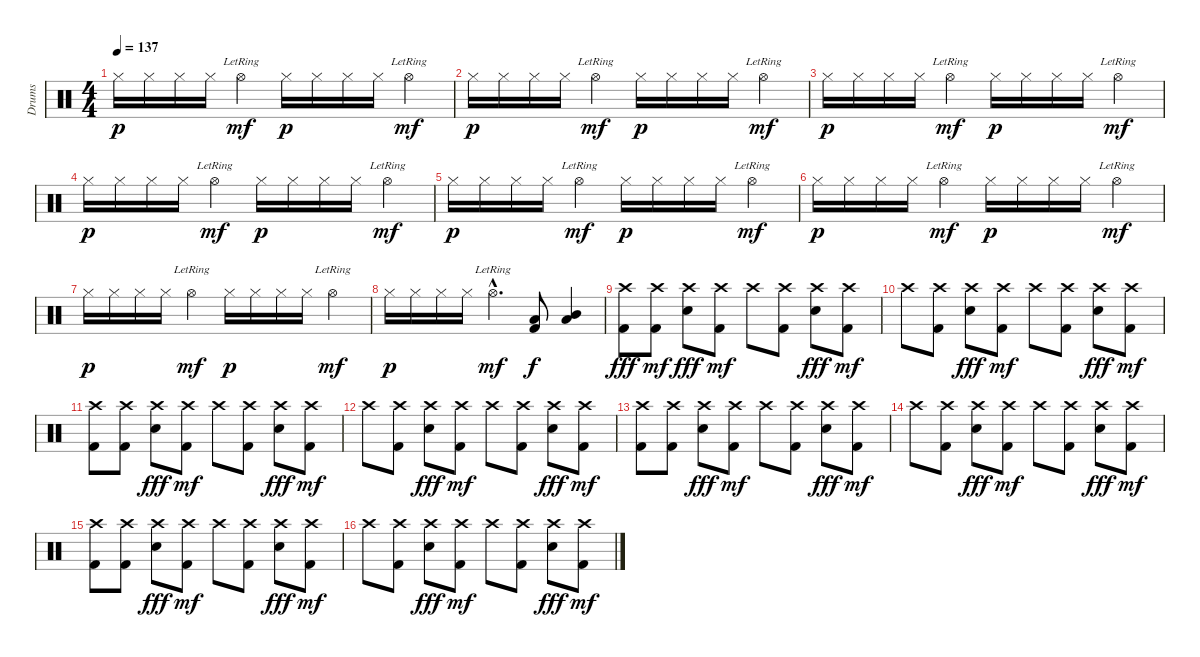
\track ("Drums" "Drums") {instrument percussion}
\staff {score}
\articulation defaults
\ts (4 4)
\tempo 137
\clef neutral
\ks c "Hi-Hat (closed)".16{dy p} "Hi-Hat (closed)".16 "Hi-Hat (closed)".16 "Hi-Hat (closed)".16 "Hi-Hat (open)"{lr}.4{dy mf} "Hi-Hat (closed)".16{dy p} "Hi-Hat (closed)".16 "Hi-Hat (closed)".16 "Hi-Hat (closed)".16 "Hi-Hat (open)"{lr}.4{dy mf}
|
"Hi-Hat (closed)".16{dy p} "Hi-Hat (closed)".16 "Hi-Hat (closed)".16 "Hi-Hat (closed)".16 "Hi-Hat (open)"{lr}.4{dy mf} "Hi-Hat (closed)".16{dy p} "Hi-Hat (closed)".16 "Hi-Hat (closed)".16 "Hi-Hat (closed)".16 "Hi-Hat (open)"{lr}.4{dy mf} |
"Hi-Hat (closed)".16{dy p} "Hi-Hat (closed)".16 "Hi-Hat (closed)".16 "Hi-Hat (closed)".16 "Hi-Hat (open)"{lr}.4{dy mf} "Hi-Hat (closed)".16{dy p} "Hi-Hat (closed)".16 "Hi-Hat (closed)".16 "Hi-Hat (closed)".16 "Hi-Hat (open)"{lr}.4{dy mf} |
"Hi-Hat (closed)".16{dy p} "Hi-Hat (closed)".16 "Hi-Hat (closed)".16 "Hi-Hat (closed)".16 "Hi-Hat (open)"{lr}.4{dy mf} "Hi-Hat (closed)".16{dy p} "Hi-Hat (closed)".16 "Hi-Hat (closed)".16 "Hi-Hat (closed)".16 "Hi-Hat (open)"{lr}.4{dy mf} |
"Hi-Hat (closed)".16{dy p} "Hi-Hat (closed)".16 "Hi-Hat (closed)".16 "Hi-Hat (closed)".16 "Hi-Hat (open)"{lr}.4{dy mf} "Hi-Hat (closed)".16{dy p} "Hi-Hat (closed)".16 "Hi-Hat (closed)".16 "Hi-Hat (closed)".16 "Hi-Hat (open)"{lr}.4{dy mf} |
"Hi-Hat (closed)".16{dy p} "Hi-Hat (closed)".16 "Hi-Hat (closed)".16 "Hi-Hat (closed)".16 "Hi-Hat (open)"{lr}.4{dy mf} "Hi-Hat (closed)".16{dy p} "Hi-Hat (closed)".16 "Hi-Hat (closed)".16 "Hi-Hat (closed)".16 "Hi-Hat (open)"{lr}.4{dy mf} |
"Hi-Hat (closed)".16{dy p} "Hi-Hat (closed)".16 "Hi-Hat (closed)".16 "Hi-Hat (closed)".16 "Hi-Hat (open)"{lr}.4{dy mf} "Hi-Hat (closed)".16{dy p} "Hi-Hat (closed)".16 "Hi-Hat (closed)".16 "Hi-Hat (closed)".16 "Hi-Hat (open)"{lr}.4{dy mf} |
"Hi-Hat (closed)".16{dy p} "Hi-Hat (closed)".16 "Hi-Hat (closed)".16 "Hi-Hat (closed)".16 "Hi-Hat (open)"{hac lr}.4{d dy mf} ("Low Tom (hit)" "Kick (hit) 2").8{dy f volume 13} ("Mid Tom (hit)" "Low Tom (hit)").4 |
("Crash high (hit)" "Kick (hit) 2").8{dy fff volume 13} ("Crash high (hit)" "Kick (hit) 2").8{dy mf} ("Crash high (hit)" "Snare (hit) 2").8{dy fff} ("Crash high (hit)" "Kick (hit) 2").8{dy mf} "Crash high (hit)".8 ("Crash high (hit)" "Kick (hit) 2").8 ("Crash high (hit)" "Snare (hit) 2").8{dy fff} ("Crash high (hit)" "Kick (hit) 2").8{dy mf} |
"Crash high (hit)".8 ("Crash high (hit)" "Kick (hit) 2").8 ("Crash high (hit)" "Snare (hit) 2").8{dy fff} ("Crash high (hit)" "Kick (hit) 2").8{dy mf} "Crash high (hit)".8 ("Crash high (hit)" "Kick (hit) 2").8 ("Crash high (hit)" "Snare (hit) 2").8{dy fff} ("Crash high (hit)" "Kick (hit) 2").8{dy mf} |
("Crash high (hit)" "Kick (hit) 2").8 ("Crash high (hit)" "Kick (hit) 2").8 ("Crash high (hit)" "Snare (hit) 2").8{dy fff} ("Crash high (hit)" "Kick (hit) 2").8{dy mf} "Crash high (hit)".8 ("Crash high (hit)" "Kick (hit) 2").8 ("Crash high (hit)" "Snare (hit) 2").8{dy fff} ("Crash high (hit)" "Kick (hit) 2").8{dy mf} |
"Crash high (hit)".8 ("Crash high (hit)" "Kick (hit) 2").8 ("Crash high (hit)" "Snare (hit) 2").8{dy fff} ("Crash high (hit)" "Kick (hit) 2").8{dy mf} "Crash high (hit)".8 ("Crash high (hit)" "Kick (hit) 2").8 ("Crash high (hit)" "Snare (hit) 2").8{dy fff} ("Crash high (hit)" "Kick (hit) 2").8{dy mf} |
("Crash high (hit)" "Kick (hit) 2").8 ("Crash high (hit)" "Kick (hit) 2").8 ("Crash high (hit)" "Snare (hit) 2").8{dy fff} ("Crash high (hit)" "Kick (hit) 2").8{dy mf} "Crash high (hit)".8 ("Crash high (hit)" "Kick (hit) 2").8 ("Crash high (hit)" "Snare (hit) 2").8{dy fff} ("Crash high (hit)" "Kick (hit) 2").8{dy mf} |
"Crash high (hit)".8 ("Crash high (hit)" "Kick (hit) 2").8 ("Crash high (hit)" "Snare (hit) 2").8{dy fff} ("Crash high (hit)" "Kick (hit) 2").8{dy mf} "Crash high (hit)".8 ("Crash high (hit)" "Kick (hit) 2").8 ("Crash high (hit)" "Snare (hit) 2").8{dy fff} ("Crash high (hit)" "Kick (hit) 2").8{dy mf} |
("Crash high (hit)" "Kick (hit) 2").8 ("Crash high (hit)" "Kick (hit) 2").8 ("Crash high (hit)" "Snare (hit) 2").8{dy fff} ("Crash high (hit)" "Kick (hit) 2").8{dy mf} "Crash high (hit)".8 ("Crash high (hit)" "Kick (hit) 2").8 ("Crash high (hit)" "Snare (hit) 2").8{dy fff} ("Crash high (hit)" "Kick (hit) 2").8{dy mf} |
"Crash high (hit)".8 ("Crash high (hit)" "Kick (hit) 2").8 ("Crash high (hit)" "Snare (hit) 2").8{dy fff} ("Crash high (hit)" "Kick (hit) 2").8{dy mf} "Crash high (hit)".8 ("Crash high (hit)" "Kick (hit) 2").8 ("Crash high (hit)" "Snare (hit) 2").8{dy fff} ("Crash high (hit)" "Kick (hit) 2").8{dy mf}
